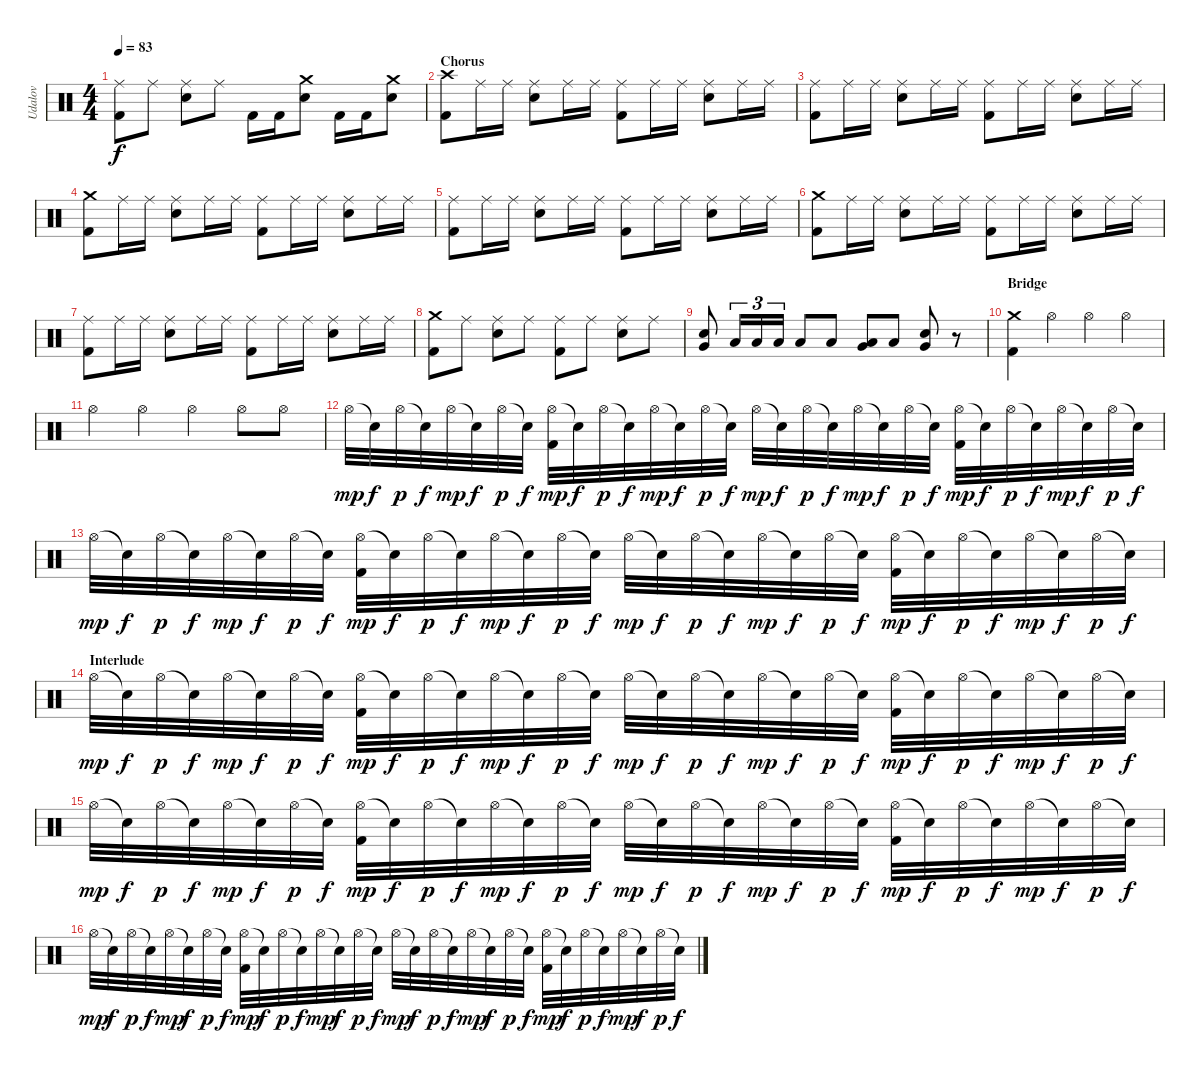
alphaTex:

\track ("Udalov" "Udalov") {instrument percussion}
\staff {score}
\articulation defaults
\ts (4 4)
\tempo 83
\clef neutral
\ks c
("Kick (hit) 2" "Ride (middle)").8{dy f} "Ride (middle)".8 ("Snare (hit) 2" "Ride (middle)").8 "Ride (middle)".8 "Kick (hit) 2".16 "Kick (hit) 2".16 ("Snare (hit) 2" "Crash medium (hit)").8 "Kick (hit) 2".16 "Kick (hit) 2".16 ("Snare (hit) 2" "Crash medium (hit)").8 |
\section ("" "Chorus")
("Kick (hit) 2" "Crash high (hit)").8 "Ride (middle)".16 "Ride (middle)".16 ("Snare (hit) 2" "Ride (middle)").8 "Ride (middle)".16 "Ride (middle)".16 ("Kick (hit) 2" "Ride (middle)").8 "Ride (middle)".16 "Ride (middle)".16 ("Snare (hit) 2" "Ride (middle)").8 "Ride (middle)".16 "Ride (middle)".16 |
("Kick (hit) 2" "Ride (middle)").8 "Ride (middle)".16 "Ride (middle)".16 ("Snare (hit) 2" "Ride (middle)").8 "Ride (middle)".16 "Ride (middle)".16 ("Kick (hit) 2" "Ride (middle)").8 "Ride (middle)".16 "Ride (middle)".16 ("Snare (hit) 2" "Ride (middle)").8 "Ride (middle)".16 "Ride (middle)".16 |
("Kick (hit) 2" "Crash medium (hit)").8 "Ride (middle)".16 "Ride (middle)".16 ("Snare (hit) 2" "Ride (middle)").8 "Ride (middle)".16 "Ride (middle)".16 ("Kick (hit) 2" "Ride (middle)").8 "Ride (middle)".16 "Ride (middle)".16 ("Snare (hit) 2" "Ride (middle)").8 "Ride (middle)".16 "Ride (middle)".16 |
("Kick (hit) 2" "Ride (middle)").8 "Ride (middle)".16 "Ride (middle)".16 ("Snare (hit) 2" "Ride (middle)").8 "Ride (middle)".16 "Ride (middle)".16 ("Kick (hit) 2" "Ride (middle)").8 "Ride (middle)".16 "Ride (middle)".16 ("Snare (hit) 2" "Ride (middle)").8 "Ride (middle)".16 "Ride (middle)".16 |
("Kick (hit) 2" "Crash medium (hit)").8 "Ride (middle)".16 "Ride (middle)".16 ("Snare (hit) 2" "Ride (middle)").8 "Ride (middle)".16 "Ride (middle)".16 ("Kick (hit) 2" "Ride (middle)").8 "Ride (middle)".16 "Ride (middle)".16 ("Snare (hit) 2" "Ride (middle)").8 "Ride (middle)".16 "Ride (middle)".16 |
("Kick (hit) 2" "Ride (middle)").8 "Ride (middle)".16 "Ride (middle)".16 ("Snare (hit) 2" "Ride (middle)").8 "Ride (middle)".16 "Ride (middle)".16 ("Kick (hit) 2" "Ride (middle)").8 "Ride (middle)".16 "Ride (middle)".16 ("Snare (hit) 2" "Ride (middle)").8 "Ride (middle)".16 "Ride (middle)".16 |
("Kick (hit) 2" "Crash medium (hit)").8 "Ride (middle)".8 ("Snare (hit) 2" "Ride (middle)").8 "Ride (middle)".8 ("Kick (hit) 2" "Ride (middle)").8 "Ride (middle)".8 ("Snare (hit) 2" "Ride (middle)").8 "Ride (middle)".8 |
("Snare (hit) 2" "Very Low Tom (hit)").8 "Low Tom (hit)".16{tu (3 2)} "Low Tom (hit)".16{tu (3 2)} "Low Tom (hit)".16{tu (3 2)} "Low Floor Tom (hit)".8 "Low Floor Tom (hit)".8 ("Very Low Tom (hit)" "Low Floor Tom (hit)").8 "Low Floor Tom (hit)".8 ("Snare (hit) 2" "Very Low Tom (hit)").8 r.8 |
\section ("" "Bridge")
("Kick (hit) 2" "Crash medium (hit)").4 "Hi-Hat (open)".4 "Hi-Hat (open)".4 "Hi-Hat (open)".4 |
"Hi-Hat (open)".4 "Hi-Hat (open)".4 "Hi-Hat (open)".4 "Hi-Hat (open)".8 "Hi-Hat (open)".8 |
"Hi-Hat (open)".32{dy mp} "Snare (hit)"{t}.32{dy f} "Hi-Hat (open)".32{dy p} "Snare (hit)"{t}.32{dy f} "Hi-Hat (open)".32{dy mp} "Snare (hit)"{t}.32{dy f} "Hi-Hat (open)".32{dy p} "Snare (hit)"{t}.32{dy f} ("Hi-Hat (open)" "Kick (hit) 2").32{dy mp} "Snare (hit)"{t}.32{dy f} "Hi-Hat (open)".32{dy p} "Snare (hit)"{t}.32{dy f} "Hi-Hat (open)".32{dy mp} "Snare (hit)"{t}.32{dy f} "Hi-Hat (open)".32{dy p} "Snare (hit)"{t}.32{dy f} "Hi-Hat (open)".32{dy mp} "Snare (hit)"{t}.32{dy f} "Hi-Hat (open)".32{dy p} "Snare (hit)"{t}.32{dy f} "Hi-Hat (open)".32{dy mp} "Snare (hit)"{t}.32{dy f} "Hi-Hat (open)".32{dy p} "Snare (hit)"{t}.32{dy f} ("Hi-Hat (open)" "Kick (hit) 2").32{dy mp} "Snare (hit)"{t}.32{dy f} "Hi-Hat (open)".32{dy p} "Snare (hit)"{t}.32{dy f} "Hi-Hat (open)".32{dy mp} "Snare (hit)"{t}.32{dy f} "Hi-Hat (open)".32{dy p} "Snare (hit)"{t}.32{dy f} |
"Hi-Hat (open)".32{dy mp} "Snare (hit)"{t}.32{dy f} "Hi-Hat (open)".32{dy p} "Snare (hit)"{t}.32{dy f} "Hi-Hat (open)".32{dy mp} "Snare (hit)"{t}.32{dy f} "Hi-Hat (open)".32{dy p} "Snare (hit)"{t}.32{dy f} ("Hi-Hat (open)" "Kick (hit) 2").32{dy mp} "Snare (hit)"{t}.32{dy f} "Hi-Hat (open)".32{dy p} "Snare (hit)"{t}.32{dy f} "Hi-Hat (open)".32{dy mp} "Snare (hit)"{t}.32{dy f} "Hi-Hat (open)".32{dy p} "Snare (hit)"{t}.32{dy f} "Hi-Hat (open)".32{dy mp} "Snare (hit)"{t}.32{dy f} "Hi-Hat (open)".32{dy p} "Snare (hit)"{t}.32{dy f} "Hi-Hat (open)".32{dy mp} "Snare (hit)"{t}.32{dy f} "Hi-Hat (open)".32{dy p} "Snare (hit)"{t}.32{dy f} ("Hi-Hat (open)" "Kick (hit) 2").32{dy mp} "Snare (hit)"{t}.32{dy f} "Hi-Hat (open)".32{dy p} "Snare (hit)"{t}.32{dy f} "Hi-Hat (open)".32{dy mp} "Snare (hit)"{t}.32{dy f} "Hi-Hat (open)".32{dy p} "Snare (hit)"{t}.32{dy f} |
\section ("" "Interlude")
"Hi-Hat (open)".32{dy mp} "Snare (hit)"{t}.32{dy f} "Hi-Hat (open)".32{dy p} "Snare (hit)"{t}.32{dy f} "Hi-Hat (open)".32{dy mp} "Snare (hit)"{t}.32{dy f} "Hi-Hat (open)".32{dy p} "Snare (hit)"{t}.32{dy f} ("Hi-Hat (open)" "Kick (hit) 2").32{dy mp} "Snare (hit)"{t}.32{dy f} "Hi-Hat (open)".32{dy p} "Snare (hit)"{t}.32{dy f} "Hi-Hat (open)".32{dy mp} "Snare (hit)"{t}.32{dy f} "Hi-Hat (open)".32{dy p} "Snare (hit)"{t}.32{dy f} "Hi-Hat (open)".32{dy mp} "Snare (hit)"{t}.32{dy f} "Hi-Hat (open)".32{dy p} "Snare (hit)"{t}.32{dy f} "Hi-Hat (open)".32{dy mp} "Snare (hit)"{t}.32{dy f} "Hi-Hat (open)".32{dy p} "Snare (hit)"{t}.32{dy f} ("Hi-Hat (open)" "Kick (hit) 2").32{dy mp} "Snare (hit)"{t}.32{dy f} "Hi-Hat (open)".32{dy p} "Snare (hit)"{t}.32{dy f} "Hi-Hat (open)".32{dy mp} "Snare (hit)"{t}.32{dy f} "Hi-Hat (open)".32{dy p} "Snare (hit)"{t}.32{dy f} |
"Hi-Hat (open)".32{dy mp} "Snare (hit)"{t}.32{dy f} "Hi-Hat (open)".32{dy p} "Snare (hit)"{t}.32{dy f} "Hi-Hat (open)".32{dy mp} "Snare (hit)"{t}.32{dy f} "Hi-Hat (open)".32{dy p} "Snare (hit)"{t}.32{dy f} ("Hi-Hat (open)" "Kick (hit) 2").32{dy mp} "Snare (hit)"{t}.32{dy f} "Hi-Hat (open)".32{dy p} "Snare (hit)"{t}.32{dy f} "Hi-Hat (open)".32{dy mp} "Snare (hit)"{t}.32{dy f} "Hi-Hat (open)".32{dy p} "Snare (hit)"{t}.32{dy f} "Hi-Hat (open)".32{dy mp} "Snare (hit)"{t}.32{dy f} "Hi-Hat (open)".32{dy p} "Snare (hit)"{t}.32{dy f} "Hi-Hat (open)".32{dy mp} "Snare (hit)"{t}.32{dy f} "Hi-Hat (open)".32{dy p} "Snare (hit)"{t}.32{dy f} ("Hi-Hat (open)" "Kick (hit) 2").32{dy mp} "Snare (hit)"{t}.32{dy f} "Hi-Hat (open)".32{dy p} "Snare (hit)"{t}.32{dy f} "Hi-Hat (open)".32{dy mp} "Snare (hit)"{t}.32{dy f} "Hi-Hat (open)".32{dy p} "Snare (hit)"{t}.32{dy f} |
"Hi-Hat (open)".32{dy mp} "Snare (hit)"{t}.32{dy f} "Hi-Hat (open)".32{dy p} "Snare (hit)"{t}.32{dy f} "Hi-Hat (open)".32{dy mp} "Snare (hit)"{t}.32{dy f} "Hi-Hat (open)".32{dy p} "Snare (hit)"{t}.32{dy f} ("Hi-Hat (open)" "Kick (hit) 2").32{dy mp} "Snare (hit)"{t}.32{dy f} "Hi-Hat (open)".32{dy p} "Snare (hit)"{t}.32{dy f} "Hi-Hat (open)".32{dy mp} "Snare (hit)"{t}.32{dy f} "Hi-Hat (open)".32{dy p} "Snare (hit)"{t}.32{dy f} "Hi-Hat (open)".32{dy mp} "Snare (hit)"{t}.32{dy f} "Hi-Hat (open)".32{dy p} "Snare (hit)"{t}.32{dy f} "Hi-Hat (open)".32{dy mp} "Snare (hit)"{t}.32{dy f} "Hi-Hat (open)".32{dy p} "Snare (hit)"{t}.32{dy f} ("Hi-Hat (open)" "Kick (hit) 2").32{dy mp} "Snare (hit)"{t}.32{dy f} "Hi-Hat (open)".32{dy p} "Snare (hit)"{t}.32{dy f} "Hi-Hat (open)".32{dy mp} "Snare (hit)"{t}.32{dy f} "Hi-Hat (open)".32{dy p} "Snare (hit)"{t}.32{dy f}
